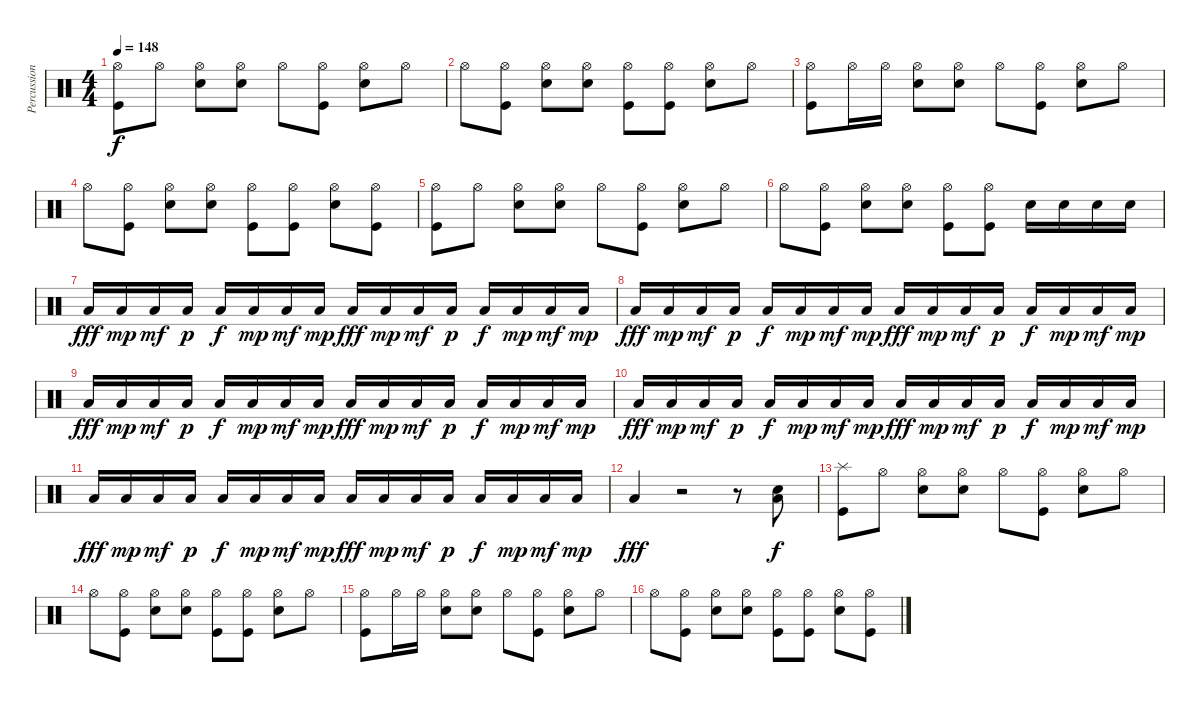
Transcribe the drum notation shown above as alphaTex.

\track ("Percussion" "Percussion") {instrument percussion}
\staff {score}
\articulation defaults
\ts (4 4)
\tempo 148
\clef neutral
\ks c
("Hi-Hat (open)" "Kick (hit)").8{dy f} "Hi-Hat (open)".8 ("Hi-Hat (open)" "Snare (hit) 2").8 ("Hi-Hat (open)" "Snare (hit) 2").8 "Hi-Hat (open)".8 ("Hi-Hat (open)" "Kick (hit)").8 ("Hi-Hat (open)" "Snare (hit) 2").8 "Hi-Hat (open)".8 |
"Hi-Hat (open)".8 ("Hi-Hat (open)" "Kick (hit)").8 ("Hi-Hat (open)" "Snare (hit) 2").8 ("Hi-Hat (open)" "Snare (hit) 2").8 ("Hi-Hat (open)" "Kick (hit)").8 ("Hi-Hat (open)" "Kick (hit)").8 ("Hi-Hat (open)" "Snare (hit) 2").8 "Hi-Hat (open)".8 |
("Hi-Hat (open)" "Kick (hit)").8 "Hi-Hat (open)".16 "Hi-Hat (open)".16 ("Hi-Hat (open)" "Snare (hit) 2").8 ("Hi-Hat (open)" "Snare (hit) 2").8 "Hi-Hat (open)".8 ("Hi-Hat (open)" "Kick (hit)").8 ("Hi-Hat (open)" "Snare (hit) 2").8 "Hi-Hat (open)".8 |
"Hi-Hat (open)".8 ("Hi-Hat (open)" "Kick (hit)").8 ("Hi-Hat (open)" "Snare (hit) 2").8 ("Hi-Hat (open)" "Snare (hit) 2").8 ("Hi-Hat (open)" "Kick (hit)").8 ("Hi-Hat (open)" "Kick (hit)").8 ("Hi-Hat (open)" "Snare (hit) 2").8 ("Hi-Hat (open)" "Kick (hit)").8 |
("Hi-Hat (open)" "Kick (hit)").8 "Hi-Hat (open)".8 ("Hi-Hat (open)" "Snare (hit) 2").8 ("Hi-Hat (open)" "Snare (hit) 2").8 "Hi-Hat (open)".8 ("Hi-Hat (open)" "Kick (hit)").8 ("Hi-Hat (open)" "Snare (hit) 2").8 "Hi-Hat (open)".8 |
"Hi-Hat (open)".8 ("Hi-Hat (open)" "Kick (hit)").8 ("Hi-Hat (open)" "Snare (hit) 2").8 ("Hi-Hat (open)" "Snare (hit) 2").8 ("Hi-Hat (open)" "Kick (hit)").8 ("Hi-Hat (open)" "Kick (hit)").8 "Snare (hit) 2".16 "Snare (hit) 2".16 "Snare (hit) 2".16 "Snare (hit) 2".16 |
"Low Tom (hit)".16{dy fff} "Low Tom (hit)".16{dy mp} "Low Tom (hit)".16{dy mf} "Low Tom (hit)".16{dy p} "Low Tom (hit)".16{dy f} "Low Tom (hit)".16{dy mp} "Low Tom (hit)".16{dy mf} "Low Tom (hit)".16{dy mp} "Low Tom (hit)".16{dy fff} "Low Tom (hit)".16{dy mp} "Low Tom (hit)".16{dy mf} "Low Tom (hit)".16{dy p} "Low Tom (hit)".16{dy f} "Low Tom (hit)".16{dy mp} "Low Tom (hit)".16{dy mf} "Low Tom (hit)".16{dy mp} |
"Low Tom (hit)".16{dy fff} "Low Tom (hit)".16{dy mp} "Low Tom (hit)".16{dy mf} "Low Tom (hit)".16{dy p} "Low Tom (hit)".16{dy f} "Low Tom (hit)".16{dy mp} "Low Tom (hit)".16{dy mf} "Low Tom (hit)".16{dy mp} "Low Tom (hit)".16{dy fff} "Low Tom (hit)".16{dy mp} "Low Tom (hit)".16{dy mf} "Low Tom (hit)".16{dy p} "Low Tom (hit)".16{dy f} "Low Tom (hit)".16{dy mp} "Low Tom (hit)".16{dy mf} "Low Tom (hit)".16{dy mp} |
"Low Tom (hit)".16{dy fff} "Low Tom (hit)".16{dy mp} "Low Tom (hit)".16{dy mf} "Low Tom (hit)".16{dy p} "Low Tom (hit)".16{dy f} "Low Tom (hit)".16{dy mp} "Low Tom (hit)".16{dy mf} "Low Tom (hit)".16{dy mp} "Low Tom (hit)".16{dy fff} "Low Tom (hit)".16{dy mp} "Low Tom (hit)".16{dy mf} "Low Tom (hit)".16{dy p} "Low Tom (hit)".16{dy f} "Low Tom (hit)".16{dy mp} "Low Tom (hit)".16{dy mf} "Low Tom (hit)".16{dy mp} |
"Low Tom (hit)".16{dy fff} "Low Tom (hit)".16{dy mp} "Low Tom (hit)".16{dy mf} "Low Tom (hit)".16{dy p} "Low Tom (hit)".16{dy f} "Low Tom (hit)".16{dy mp} "Low Tom (hit)".16{dy mf} "Low Tom (hit)".16{dy mp} "Low Tom (hit)".16{dy fff} "Low Tom (hit)".16{dy mp} "Low Tom (hit)".16{dy mf} "Low Tom (hit)".16{dy p} "Low Tom (hit)".16{dy f} "Low Tom (hit)".16{dy mp} "Low Tom (hit)".16{dy mf} "Low Tom (hit)".16{dy mp} |
"Low Tom (hit)".16{dy fff} "Low Tom (hit)".16{dy mp} "Low Tom (hit)".16{dy mf} "Low Tom (hit)".16{dy p} "Low Tom (hit)".16{dy f} "Low Tom (hit)".16{dy mp} "Low Tom (hit)".16{dy mf} "Low Tom (hit)".16{dy mp} "Low Tom (hit)".16{dy fff} "Low Tom (hit)".16{dy mp} "Low Tom (hit)".16{dy mf} "Low Tom (hit)".16{dy p} "Low Tom (hit)".16{dy f} "Low Tom (hit)".16{dy mp} "Low Tom (hit)".16{dy mf} "Low Tom (hit)".16{dy mp} |
"Low Tom (hit)".4{dy fff} r.2 r.8 ("Low Tom (hit)" "Snare (hit) 2").8{dy f} |
("Splash (hit)" "Kick (hit)").8 "Hi-Hat (open)".8 ("Hi-Hat (open)" "Snare (hit) 2").8 ("Hi-Hat (open)" "Snare (hit) 2").8 "Hi-Hat (open)".8 ("Hi-Hat (open)" "Kick (hit)").8 ("Hi-Hat (open)" "Snare (hit) 2").8 "Hi-Hat (open)".8 |
"Hi-Hat (open)".8 ("Hi-Hat (open)" "Kick (hit)").8 ("Hi-Hat (open)" "Snare (hit) 2").8 ("Hi-Hat (open)" "Snare (hit) 2").8 ("Hi-Hat (open)" "Kick (hit)").8 ("Hi-Hat (open)" "Kick (hit)").8 ("Hi-Hat (open)" "Snare (hit) 2").8 "Hi-Hat (open)".8 |
("Hi-Hat (open)" "Kick (hit)").8 "Hi-Hat (open)".16 "Hi-Hat (open)".16 ("Hi-Hat (open)" "Snare (hit) 2").8 ("Hi-Hat (open)" "Snare (hit) 2").8 "Hi-Hat (open)".8 ("Hi-Hat (open)" "Kick (hit)").8 ("Hi-Hat (open)" "Snare (hit) 2").8 "Hi-Hat (open)".8 |
"Hi-Hat (open)".8 ("Hi-Hat (open)" "Kick (hit)").8 ("Hi-Hat (open)" "Snare (hit) 2").8 ("Hi-Hat (open)" "Snare (hit) 2").8 ("Hi-Hat (open)" "Kick (hit)").8 ("Hi-Hat (open)" "Kick (hit)").8 ("Hi-Hat (open)" "Snare (hit) 2").8 ("Hi-Hat (open)" "Kick (hit)").8
